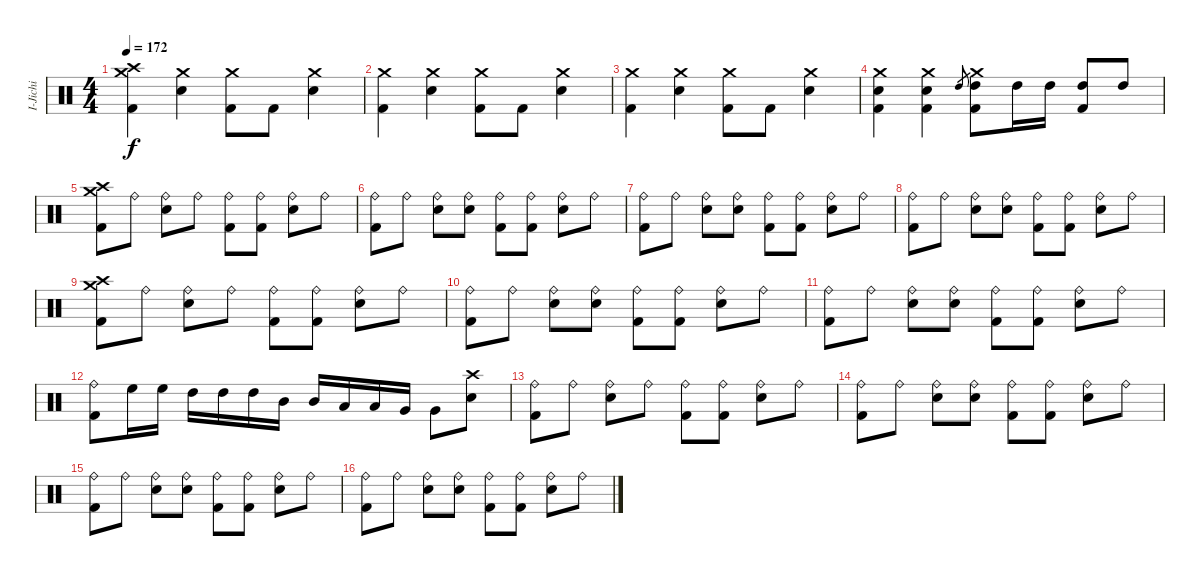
\track ("I-Jichi" "I-Jichi") {instrument percussion}
\staff {score}
\articulation defaults
\ts (4 4)
\tempo 172
\clef neutral
\ks c
("Crash high (hit)" "Crash medium (hit)" "Kick (hit) 2").4{dy f} ("Crash medium (hit)" "Electric Snare (hit)").4 ("Crash medium (hit)" "Kick (hit) 2").8 "Kick (hit) 2".8 ("Crash medium (hit)" "Electric Snare (hit)").4 |
("Crash medium (hit)" "Kick (hit) 2").4 ("Crash medium (hit)" "Electric Snare (hit)").4 ("Crash medium (hit)" "Kick (hit) 2").8 "Kick (hit) 2".8 ("Crash medium (hit)" "Electric Snare (hit)").4 |
("Crash medium (hit)" "Kick (hit) 2").4 ("Crash medium (hit)" "Electric Snare (hit)").4 ("Crash medium (hit)" "Kick (hit) 2").8 "Kick (hit) 2".8 ("Crash medium (hit)" "Electric Snare (hit)").4 |
("Crash medium (hit)" "Electric Snare (hit)" "Kick (hit) 2").4 ("Crash medium (hit)" "Electric Snare (hit)" "Kick (hit) 2").4 "High Tom (hit)".8{gr} ("Crash medium (hit)" "High Tom (hit)" "Kick (hit) 2").8 "High Tom (hit)".16 "High Tom (hit)".16 ("High Tom (hit)" "Kick (hit) 2").8 "High Tom (hit)".8 |
("Crash medium (hit)" "Crash high (hit)" "Kick (hit) 2").8 "Ride (bell)".8 ("Ride (bell)" "Electric Snare (hit)").8 "Ride (bell)".8 ("Ride (bell)" "Kick (hit) 2").8 ("Ride (bell)" "Kick (hit) 2").8 ("Ride (bell)" "Electric Snare (hit)").8 "Ride (bell)".8 |
("Ride (bell)" "Kick (hit) 2").8 "Ride (bell)".8 ("Ride (bell)" "Electric Snare (hit)").8 ("Ride (bell)" "Electric Snare (hit)").8 ("Ride (bell)" "Kick (hit) 2").8 ("Ride (bell)" "Kick (hit) 2").8 ("Ride (bell)" "Electric Snare (hit)").8 "Ride (bell)".8 |
("Ride (bell)" "Kick (hit) 2").8 "Ride (bell)".8 ("Ride (bell)" "Electric Snare (hit)").8 ("Ride (bell)" "Electric Snare (hit)").8 ("Ride (bell)" "Kick (hit) 2").8 ("Ride (bell)" "Kick (hit) 2").8 ("Ride (bell)" "Electric Snare (hit)").8 "Ride (bell)".8 |
("Ride (bell)" "Kick (hit) 2").8 "Ride (bell)".8 ("Ride (bell)" "Electric Snare (hit)").8 ("Ride (bell)" "Electric Snare (hit)").8 ("Ride (bell)" "Kick (hit) 2").8 ("Ride (bell)" "Kick (hit) 2").8 ("Ride (bell)" "Electric Snare (hit)").8 "Ride (bell)".8 |
("Crash medium (hit)" "Crash high (hit)" "Kick (hit) 2").8 "Ride (bell)".8 ("Ride (bell)" "Electric Snare (hit)").8 "Ride (bell)".8 ("Ride (bell)" "Kick (hit) 2").8 ("Ride (bell)" "Kick (hit) 2").8 ("Ride (bell)" "Electric Snare (hit)").8 "Ride (bell)".8 |
("Ride (bell)" "Kick (hit) 2").8 "Ride (bell)".8 ("Ride (bell)" "Electric Snare (hit)").8 ("Ride (bell)" "Electric Snare (hit)").8 ("Ride (bell)" "Kick (hit) 2").8 ("Ride (bell)" "Kick (hit) 2").8 ("Ride (bell)" "Electric Snare (hit)").8 "Ride (bell)".8 |
("Ride (bell)" "Kick (hit) 2").8 "Ride (bell)".8 ("Ride (bell)" "Electric Snare (hit)").8 ("Ride (bell)" "Electric Snare (hit)").8 ("Ride (bell)" "Kick (hit) 2").8 ("Ride (bell)" "Kick (hit) 2").8 ("Ride (bell)" "Electric Snare (hit)").8 "Ride (bell)".8 |
("Ride (bell)" "Kick (hit) 2").8 "High Floor Tom (hit)".16 "High Floor Tom (hit)".16 "High Tom (hit)".16 "High Tom (hit)".16 "High Tom (hit)".16 "Mid Tom (hit)".16 "Mid Tom (hit)".16 "Low Tom (hit)".16 "Low Tom (hit)".16 "Very Low Tom (hit)".16 "Very Low Tom (hit)".8 ("Crash high (hit)" "Electric Snare (hit)").8 |
("Ride (bell)" "Kick (hit) 2").8 "Ride (bell)".8 ("Ride (bell)" "Electric Snare (hit)").8 "Ride (bell)".8 ("Ride (bell)" "Kick (hit) 2").8 ("Ride (bell)" "Kick (hit) 2").8 ("Ride (bell)" "Electric Snare (hit)").8 "Ride (bell)".8 |
("Ride (bell)" "Kick (hit) 2").8 "Ride (bell)".8 ("Ride (bell)" "Electric Snare (hit)").8 ("Ride (bell)" "Electric Snare (hit)").8 ("Ride (bell)" "Kick (hit) 2").8 ("Ride (bell)" "Kick (hit) 2").8 ("Ride (bell)" "Electric Snare (hit)").8 "Ride (bell)".8 |
("Ride (bell)" "Kick (hit) 2").8 "Ride (bell)".8 ("Ride (bell)" "Electric Snare (hit)").8 ("Ride (bell)" "Electric Snare (hit)").8 ("Ride (bell)" "Kick (hit) 2").8 ("Ride (bell)" "Kick (hit) 2").8 ("Ride (bell)" "Electric Snare (hit)").8 "Ride (bell)".8 |
("Ride (bell)" "Kick (hit) 2").8 "Ride (bell)".8 ("Ride (bell)" "Electric Snare (hit)").8 ("Ride (bell)" "Electric Snare (hit)").8 ("Ride (bell)" "Kick (hit) 2").8 ("Ride (bell)" "Kick (hit) 2").8 ("Ride (bell)" "Electric Snare (hit)").8 "Ride (bell)".8
